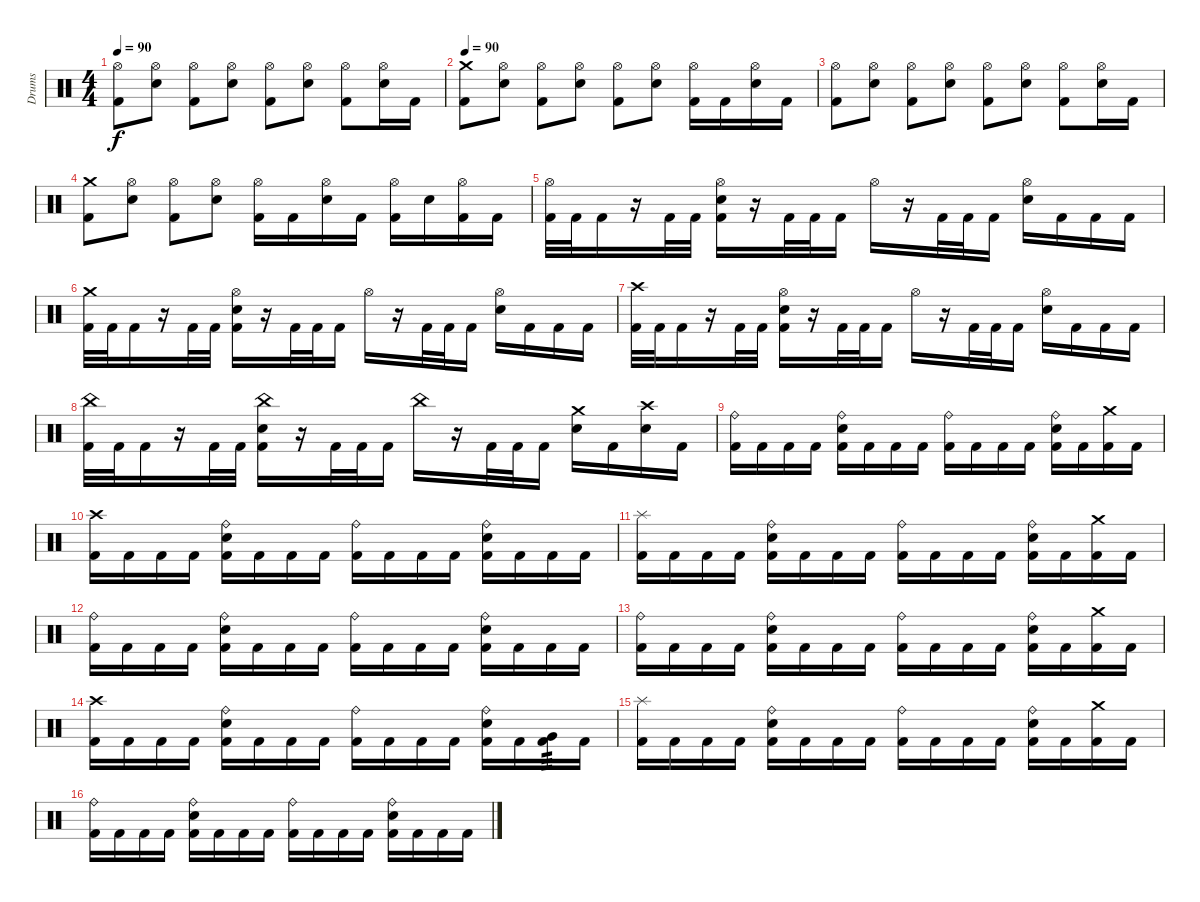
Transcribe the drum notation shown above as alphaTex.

\track ("Drums" "Drums") {instrument percussion}
\staff {score}
\articulation defaults
\ts (4 4)
\tempo 90
\clef neutral
\ks c
("Hi-Hat (open)" "Kick (hit) 2").8{dy f} ("Hi-Hat (open)" "Electric Snare (hit)").8 ("Hi-Hat (open)" "Kick (hit) 2").8 ("Hi-Hat (open)" "Electric Snare (hit)").8 ("Hi-Hat (open)" "Kick (hit) 2").8 ("Hi-Hat (open)" "Electric Snare (hit)").8 ("Hi-Hat (open)" "Kick (hit) 2").8 ("Hi-Hat (open)" "Electric Snare (hit)").16 "Kick (hit) 2".16 |
\tempo 90
("Crash medium (hit)" "Kick (hit) 2").8 ("Hi-Hat (open)" "Electric Snare (hit)").8 ("Hi-Hat (open)" "Kick (hit) 2").8 ("Hi-Hat (open)" "Electric Snare (hit)").8 ("Hi-Hat (open)" "Kick (hit) 2").8 ("Hi-Hat (open)" "Electric Snare (hit)").8 ("Hi-Hat (open)" "Kick (hit) 2").16 "Kick (hit) 2".16 ("Hi-Hat (open)" "Electric Snare (hit)").16 "Kick (hit) 2".16 |
("Hi-Hat (open)" "Kick (hit) 2").8 ("Hi-Hat (open)" "Electric Snare (hit)").8 ("Hi-Hat (open)" "Kick (hit) 2").8 ("Hi-Hat (open)" "Electric Snare (hit)").8 ("Hi-Hat (open)" "Kick (hit) 2").8 ("Hi-Hat (open)" "Electric Snare (hit)").8 ("Hi-Hat (open)" "Kick (hit) 2").8 ("Hi-Hat (open)" "Electric Snare (hit)").16 "Kick (hit) 2".16 |
("Crash medium (hit)" "Kick (hit) 2").8 ("Hi-Hat (open)" "Electric Snare (hit)").8 ("Hi-Hat (open)" "Kick (hit) 2").8 ("Hi-Hat (open)" "Electric Snare (hit)").8 ("Hi-Hat (open)" "Kick (hit) 2").16 "Kick (hit) 2".16 ("Hi-Hat (open)" "Electric Snare (hit)").16 "Kick (hit) 2".16 ("Hi-Hat (open)" "Kick (hit) 2").16 "Electric Snare (hit)".16 ("Hi-Hat (open)" "Kick (hit) 2").16 "Kick (hit) 2".16 |
("Hi-Hat (open)" "Kick (hit) 2").32 "Kick (hit) 2".32 "Kick (hit) 2".16 r.16 "Kick (hit) 2".32 "Kick (hit) 2".32 ("Hi-Hat (open)" "Kick (hit) 2" "Electric Snare (hit)").16 r.16 "Kick (hit) 2".32 "Kick (hit) 2".32 "Kick (hit) 2".16 "Hi-Hat (open)".16 r.16 "Kick (hit) 2".32 "Kick (hit) 2".32 "Kick (hit) 2".16 ("Hi-Hat (open)" "Electric Snare (hit)").16 "Kick (hit) 2".16 "Kick (hit) 2".16 "Kick (hit) 2".16 |
("Crash medium (hit)" "Kick (hit) 2").32 "Kick (hit) 2".32 "Kick (hit) 2".16 r.16 "Kick (hit) 2".32 "Kick (hit) 2".32 ("Hi-Hat (open)" "Kick (hit) 2" "Electric Snare (hit)").16 r.16 "Kick (hit) 2".32 "Kick (hit) 2".32 "Kick (hit) 2".16 "Hi-Hat (open)".16 r.16 "Kick (hit) 2".32 "Kick (hit) 2".32 "Kick (hit) 2".16 ("Hi-Hat (open)" "Electric Snare (hit)").16 "Kick (hit) 2".16 "Kick (hit) 2".16 "Kick (hit) 2".16 |
("Crash high (hit)" "Kick (hit) 2").32 "Kick (hit) 2".32 "Kick (hit) 2".16 r.16 "Kick (hit) 2".32 "Kick (hit) 2".32 ("Hi-Hat (open)" "Kick (hit) 2" "Electric Snare (hit)").16 r.16 "Kick (hit) 2".32 "Kick (hit) 2".32 "Kick (hit) 2".16 "Hi-Hat (open)".16 r.16 "Kick (hit) 2".32 "Kick (hit) 2".32 "Kick (hit) 2".16 ("Hi-Hat (open)" "Electric Snare (hit)").16 "Kick (hit) 2".16 "Kick (hit) 2".16 "Kick (hit) 2".16 |
("China (hit)" "Kick (hit) 2").32 "Kick (hit) 2".32 "Kick (hit) 2".16 r.16 "Kick (hit) 2".32 "Kick (hit) 2".32 ("China (hit)" "Kick (hit) 2" "Electric Snare (hit)").16 r.16 "Kick (hit) 2".32 "Kick (hit) 2".32 "Kick (hit) 2".16 "China (hit)".16 r.16 "Kick (hit) 2".32 "Kick (hit) 2".32 "Kick (hit) 2".16 ("Crash medium (hit)" "Electric Snare (hit)").16 "Kick (hit) 2".16 ("Crash high (hit)" "Electric Snare (hit)").16 "Kick (hit) 2".16 |
("Ride (bell)" "Kick (hit) 2").16 "Kick (hit) 2".16 "Kick (hit) 2".16 "Kick (hit) 2".16 ("Electric Snare (hit)" "Ride (bell)" "Kick (hit) 2").16 "Kick (hit) 2".16 "Kick (hit) 2".16 "Kick (hit) 2".16 ("Ride (bell)" "Kick (hit) 2").16 "Kick (hit) 2".16 "Kick (hit) 2".16 "Kick (hit) 2".16 ("Electric Snare (hit)" "Ride (bell)" "Kick (hit) 2").16 "Kick (hit) 2".16 ("Crash medium (hit)" "Kick (hit) 2").16 "Kick (hit) 2".16 |
("Crash high (hit)" "Kick (hit) 2").16 "Kick (hit) 2".16 "Kick (hit) 2".16 "Kick (hit) 2".16 ("Electric Snare (hit)" "Ride (bell)" "Kick (hit) 2").16 "Kick (hit) 2".16 "Kick (hit) 2".16 "Kick (hit) 2".16 ("Ride (bell)" "Kick (hit) 2").16 "Kick (hit) 2".16 "Kick (hit) 2".16 "Kick (hit) 2".16 ("Electric Snare (hit)" "Ride (bell)" "Kick (hit) 2").16 "Kick (hit) 2".16 "Kick (hit) 2".16 "Kick (hit) 2".16 |
("Splash (hit)" "Kick (hit) 2").16 "Kick (hit) 2".16 "Kick (hit) 2".16 "Kick (hit) 2".16 ("Electric Snare (hit)" "Ride (bell)" "Kick (hit) 2").16 "Kick (hit) 2".16 "Kick (hit) 2".16 "Kick (hit) 2".16 ("Ride (bell)" "Kick (hit) 2").16 "Kick (hit) 2".16 "Kick (hit) 2".16 "Kick (hit) 2".16 ("Electric Snare (hit)" "Ride (bell)" "Kick (hit) 2").16 "Kick (hit) 2".16 ("Crash medium (hit)" "Kick (hit) 2").16 "Kick (hit) 2".16 |
("Ride (bell)" "Kick (hit) 2").16 "Kick (hit) 2".16 "Kick (hit) 2".16 "Kick (hit) 2".16 ("Electric Snare (hit)" "Ride (bell)" "Kick (hit) 2").16 "Kick (hit) 2".16 "Kick (hit) 2".16 "Kick (hit) 2".16 ("Ride (bell)" "Kick (hit) 2").16 "Kick (hit) 2".16 "Kick (hit) 2".16 "Kick (hit) 2".16 ("Electric Snare (hit)" "Ride (bell)" "Kick (hit) 2").16 "Kick (hit) 2".16 "Kick (hit) 2".16 "Kick (hit) 2".16 |
("Ride (bell)" "Kick (hit) 2").16 "Kick (hit) 2".16 "Kick (hit) 2".16 "Kick (hit) 2".16 ("Electric Snare (hit)" "Ride (bell)" "Kick (hit) 2").16 "Kick (hit) 2".16 "Kick (hit) 2".16 "Kick (hit) 2".16 ("Ride (bell)" "Kick (hit) 2").16 "Kick (hit) 2".16 "Kick (hit) 2".16 "Kick (hit) 2".16 ("Electric Snare (hit)" "Ride (bell)" "Kick (hit) 2").16 "Kick (hit) 2".16 ("Crash medium (hit)" "Kick (hit) 2").16 "Kick (hit) 2".16 |
("Crash high (hit)" "Kick (hit) 2").16 "Kick (hit) 2".16 "Kick (hit) 2".16 "Kick (hit) 2".16 ("Electric Snare (hit)" "Ride (bell)" "Kick (hit) 2").16 "Kick (hit) 2".16 "Kick (hit) 2".16 "Kick (hit) 2".16 ("Ride (bell)" "Kick (hit) 2").16 "Kick (hit) 2".16 "Kick (hit) 2".16 "Kick (hit) 2".16 ("Electric Snare (hit)" "Ride (bell)" "Kick (hit) 2").16 "Kick (hit) 2".16 ("Very Low Tom (hit)" "Kick (hit) 2").16{tp 3} "Kick (hit) 2".16 |
("Splash (hit)" "Kick (hit) 2").16 "Kick (hit) 2".16 "Kick (hit) 2".16 "Kick (hit) 2".16 ("Electric Snare (hit)" "Ride (bell)" "Kick (hit) 2").16 "Kick (hit) 2".16 "Kick (hit) 2".16 "Kick (hit) 2".16 ("Ride (bell)" "Kick (hit) 2").16 "Kick (hit) 2".16 "Kick (hit) 2".16 "Kick (hit) 2".16 ("Electric Snare (hit)" "Ride (bell)" "Kick (hit) 2").16 "Kick (hit) 2".16 ("Crash medium (hit)" "Kick (hit) 2").16 "Kick (hit) 2".16 |
("Ride (bell)" "Kick (hit) 2").16 "Kick (hit) 2".16 "Kick (hit) 2".16 "Kick (hit) 2".16 ("Electric Snare (hit)" "Ride (bell)" "Kick (hit) 2").16 "Kick (hit) 2".16 "Kick (hit) 2".16 "Kick (hit) 2".16 ("Ride (bell)" "Kick (hit) 2").16 "Kick (hit) 2".16 "Kick (hit) 2".16 "Kick (hit) 2".16 ("Electric Snare (hit)" "Ride (bell)" "Kick (hit) 2").16 "Kick (hit) 2".16 "Kick (hit) 2".16 "Kick (hit) 2".16
